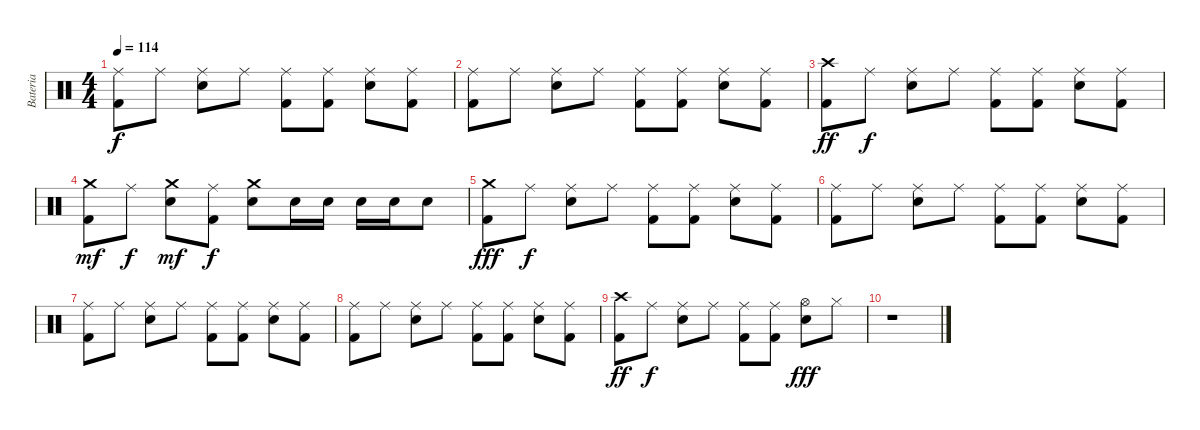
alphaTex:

\track ("Bateria" "Bateria") {instrument percussion}
\staff {score}
\articulation defaults
\ts (4 4)
\tempo 114
\clef neutral
\ks c
("Ride (middle)" "Kick (hit) 2").8{dy f} "Ride (middle)".8 ("Ride (middle)" "Electric Snare (hit)").8 "Ride (middle)".8 ("Ride (middle)" "Kick (hit) 2").8 ("Ride (middle)" "Kick (hit) 2").8 ("Ride (middle)" "Electric Snare (hit)").8 ("Ride (middle)" "Kick (hit) 2").8 |
("Ride (middle)" "Kick (hit) 2").8 "Ride (middle)".8 ("Ride (middle)" "Electric Snare (hit)").8 "Ride (middle)".8 ("Ride (middle)" "Kick (hit) 2").8 ("Ride (middle)" "Kick (hit) 2").8 ("Ride (middle)" "Electric Snare (hit)").8 ("Ride (middle)" "Kick (hit) 2").8 |
("Crash high (hit)" "Kick (hit) 2").8{dy ff} "Ride (middle)".8{dy f} ("Ride (middle)" "Electric Snare (hit)").8 "Ride (middle)".8 ("Ride (middle)" "Kick (hit) 2").8 ("Ride (middle)" "Kick (hit) 2").8 ("Ride (middle)" "Electric Snare (hit)").8 ("Ride (middle)" "Kick (hit) 2").8 |
("Crash medium (hit)" "Kick (hit) 2").8{dy mf} "Ride (middle)".8{dy f} ("Crash medium (hit)" "Electric Snare (hit)").8{dy mf} ("Ride (middle)" "Kick (hit) 2").8{dy f} ("Crash medium (hit)" "Electric Snare (hit)").8 "Electric Snare (hit)".16 "Electric Snare (hit)".16 "Electric Snare (hit)".16 "Electric Snare (hit)".16 "Electric Snare (hit)".8 |
("Crash medium (hit)" "Kick (hit) 2").8{dy fff} "Ride (middle)".8{dy f} ("Ride (middle)" "Electric Snare (hit)").8 "Ride (middle)".8 ("Ride (middle)" "Kick (hit) 2").8 ("Ride (middle)" "Kick (hit) 2").8 ("Ride (middle)" "Electric Snare (hit)").8 ("Ride (middle)" "Kick (hit) 2").8 |
("Ride (middle)" "Kick (hit) 2").8 "Ride (middle)".8 ("Ride (middle)" "Electric Snare (hit)").8 "Ride (middle)".8 ("Ride (middle)" "Kick (hit) 2").8 ("Ride (middle)" "Kick (hit) 2").8 ("Ride (middle)" "Electric Snare (hit)").8 ("Ride (middle)" "Kick (hit) 2").8 |
("Ride (middle)" "Kick (hit) 2").8 "Ride (middle)".8 ("Ride (middle)" "Electric Snare (hit)").8 "Ride (middle)".8 ("Ride (middle)" "Kick (hit) 2").8 ("Ride (middle)" "Kick (hit) 2").8 ("Ride (middle)" "Electric Snare (hit)").8 ("Ride (middle)" "Kick (hit) 2").8 |
("Ride (middle)" "Kick (hit) 2").8 "Ride (middle)".8 ("Ride (middle)" "Electric Snare (hit)").8 "Ride (middle)".8 ("Ride (middle)" "Kick (hit) 2").8 ("Ride (middle)" "Kick (hit) 2").8 ("Ride (middle)" "Electric Snare (hit)").8 ("Ride (middle)" "Kick (hit) 2").8 |
("Crash high (hit)" "Kick (hit) 2").8{dy ff} "Ride (middle)".8{dy f} ("Ride (middle)" "Electric Snare (hit)").8 "Ride (middle)".8 ("Ride (middle)" "Kick (hit) 2").8 ("Ride (middle)" "Kick (hit) 2").8 ("Hi-Hat (open)" "Electric Snare (hit)").8{dy fff} "Hi-Hat (closed)".8 |
r.1
